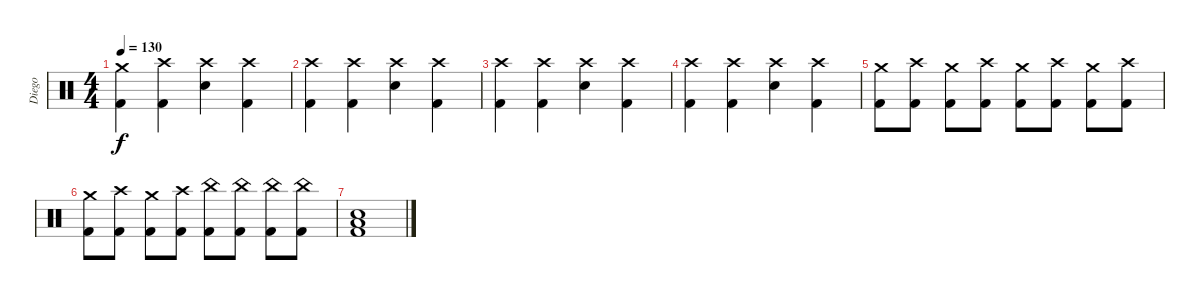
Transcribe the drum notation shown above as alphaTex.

\track ("Diego" "Diego") {instrument percussion}
\staff {score}
\articulation defaults
\ts (4 4)
\tempo 130
\clef neutral
\ks c
("Crash medium (hit)" "Kick (hit) 2").4{dy f} ("Crash high (hit)" "Kick (hit) 2").4 ("Crash high (hit)" "Electric Snare (hit)").4 ("Crash high (hit)" "Kick (hit) 2").4 |
("Crash high (hit)" "Kick (hit) 2").4 ("Crash high (hit)" "Kick (hit) 2").4 ("Crash high (hit)" "Electric Snare (hit)").4 ("Crash high (hit)" "Kick (hit) 2").4 |
("Crash high (hit)" "Kick (hit) 2").4 ("Crash high (hit)" "Kick (hit) 2").4 ("Crash high (hit)" "Electric Snare (hit)").4 ("Crash high (hit)" "Kick (hit) 2").4 |
("Crash high (hit)" "Kick (hit) 2").4 ("Crash high (hit)" "Kick (hit) 2").4 ("Crash high (hit)" "Electric Snare (hit)").4 ("Crash high (hit)" "Kick (hit) 2").4 |
("Crash medium (hit)" "Kick (hit) 2").8 ("Crash high (hit)" "Kick (hit) 2").8 ("Crash medium (hit)" "Kick (hit) 2").8 ("Crash high (hit)" "Kick (hit) 2").8 ("Crash medium (hit)" "Kick (hit) 2").8 ("Crash high (hit)" "Kick (hit) 2").8 ("Crash medium (hit)" "Kick (hit) 2").8 ("Crash high (hit)" "Kick (hit) 2").8 |
("Crash medium (hit)" "Kick (hit) 2").8 ("Crash high (hit)" "Kick (hit) 2").8 ("Crash medium (hit)" "Kick (hit) 2").8 ("Crash high (hit)" "Kick (hit) 2").8 ("China (hit)" "Kick (hit) 2").8 ("China (hit)" "Kick (hit) 2").8 ("China (hit)" "Kick (hit) 2").8 ("China (hit)" "Kick (hit) 2").8 |
("Low Tom (hit)" "Electric Snare (hit)" "Kick (hit) 2").1
